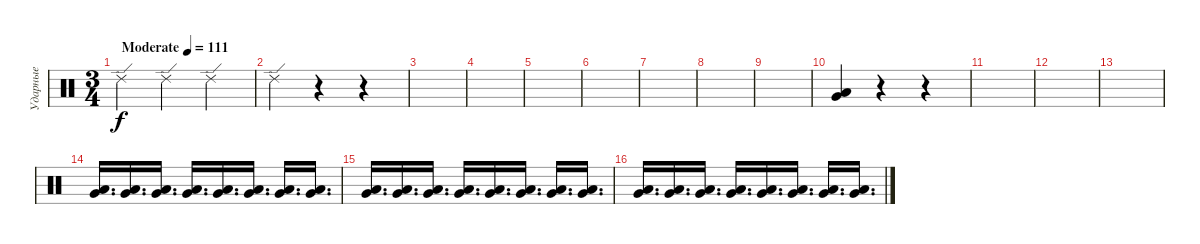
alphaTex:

\track ("Ударные" "Ударные") {instrument percussion}
\staff {score}
\articulation defaults
\ts (3 4)
\tempo (111 "Moderate")
\clef neutral
\ks c "Ride (edge) 2".4{dy f} "Ride (edge) 2".4 "Ride (edge) 2".4
|
"Ride (edge) 2".4 r.4 r.4 |
|
|
|
|
|
|
|
("Very Low Tom (hit)" "Low Floor Tom (hit)").4 r.4 r.4 |
|
|
|
("Low Floor Tom (hit)" "Very Low Tom (hit)").16{d volume 1} ("Low Floor Tom (hit)" "Very Low Tom (hit)").16{d volume 13} ("Low Floor Tom (hit)" "Very Low Tom (hit)").16{d} ("Low Floor Tom (hit)" "Very Low Tom (hit)").16{d} ("Low Floor Tom (hit)" "Very Low Tom (hit)").16{d} ("Low Floor Tom (hit)" "Very Low Tom (hit)").16{d} ("Low Floor Tom (hit)" "Very Low Tom (hit)").16{d} ("Low Floor Tom (hit)" "Very Low Tom (hit)").16{d} |
("Low Floor Tom (hit)" "Very Low Tom (hit)").16{d} ("Low Floor Tom (hit)" "Very Low Tom (hit)").16{d} ("Low Floor Tom (hit)" "Very Low Tom (hit)").16{d} ("Low Floor Tom (hit)" "Very Low Tom (hit)").16{d} ("Low Floor Tom (hit)" "Very Low Tom (hit)").16{d} ("Low Floor Tom (hit)" "Very Low Tom (hit)").16{d} ("Low Floor Tom (hit)" "Very Low Tom (hit)").16{d} ("Low Floor Tom (hit)" "Very Low Tom (hit)").16{d} |
("Low Floor Tom (hit)" "Very Low Tom (hit)").16{d} ("Low Floor Tom (hit)" "Very Low Tom (hit)").16{d} ("Low Floor Tom (hit)" "Very Low Tom (hit)").16{d} ("Low Floor Tom (hit)" "Very Low Tom (hit)").16{d} ("Low Floor Tom (hit)" "Very Low Tom (hit)").16{d} ("Low Floor Tom (hit)" "Very Low Tom (hit)").16{d} ("Low Floor Tom (hit)" "Very Low Tom (hit)").16{d} ("Low Floor Tom (hit)" "Very Low Tom (hit)").16{d}
